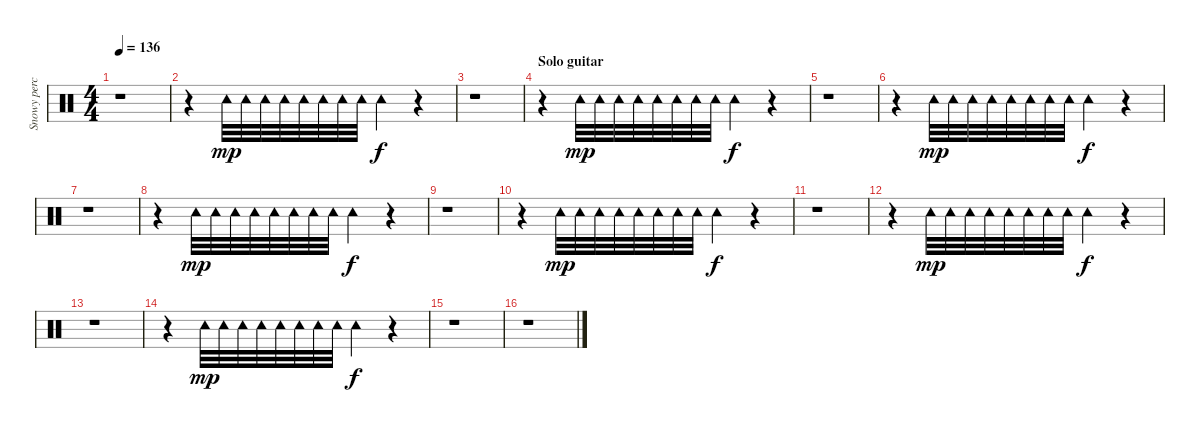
\track ("Snowy percussion" "Snowy perc") {instrument percussion}
\staff {score}
\articulation defaults
\ts (4 4)
\tempo 136
\clef neutral
\ks c
r.1{dy f} |
r.4 "Tambourine (hit)".32{dy mp} "Tambourine (hit)".32 "Tambourine (hit)".32 "Tambourine (hit)".32 "Tambourine (hit)".32 "Tambourine (hit)".32 "Tambourine (hit)".32 "Tambourine (hit)".32 "Tambourine (hit)".4{dy f} r.4 |
r.1 |
\section ("" "Solo guitar")
r.4 "Tambourine (hit)".32{dy mp} "Tambourine (hit)".32 "Tambourine (hit)".32 "Tambourine (hit)".32 "Tambourine (hit)".32 "Tambourine (hit)".32 "Tambourine (hit)".32 "Tambourine (hit)".32 "Tambourine (hit)".4{dy f} r.4 |
r.1 |
r.4 "Tambourine (hit)".32{dy mp} "Tambourine (hit)".32 "Tambourine (hit)".32 "Tambourine (hit)".32 "Tambourine (hit)".32 "Tambourine (hit)".32 "Tambourine (hit)".32 "Tambourine (hit)".32 "Tambourine (hit)".4{dy f} r.4 |
r.1 |
r.4 "Tambourine (hit)".32{dy mp} "Tambourine (hit)".32 "Tambourine (hit)".32 "Tambourine (hit)".32 "Tambourine (hit)".32 "Tambourine (hit)".32 "Tambourine (hit)".32 "Tambourine (hit)".32 "Tambourine (hit)".4{dy f} r.4 |
r.1 |
r.4 "Tambourine (hit)".32{dy mp} "Tambourine (hit)".32 "Tambourine (hit)".32 "Tambourine (hit)".32 "Tambourine (hit)".32 "Tambourine (hit)".32 "Tambourine (hit)".32 "Tambourine (hit)".32 "Tambourine (hit)".4{dy f} r.4 |
r.1 |
r.4 "Tambourine (hit)".32{dy mp} "Tambourine (hit)".32 "Tambourine (hit)".32 "Tambourine (hit)".32 "Tambourine (hit)".32 "Tambourine (hit)".32 "Tambourine (hit)".32 "Tambourine (hit)".32 "Tambourine (hit)".4{dy f} r.4 |
r.1 |
r.4 "Tambourine (hit)".32{dy mp} "Tambourine (hit)".32 "Tambourine (hit)".32 "Tambourine (hit)".32 "Tambourine (hit)".32 "Tambourine (hit)".32 "Tambourine (hit)".32 "Tambourine (hit)".32 "Tambourine (hit)".4{dy f} r.4 |
r.1 |
r.1
